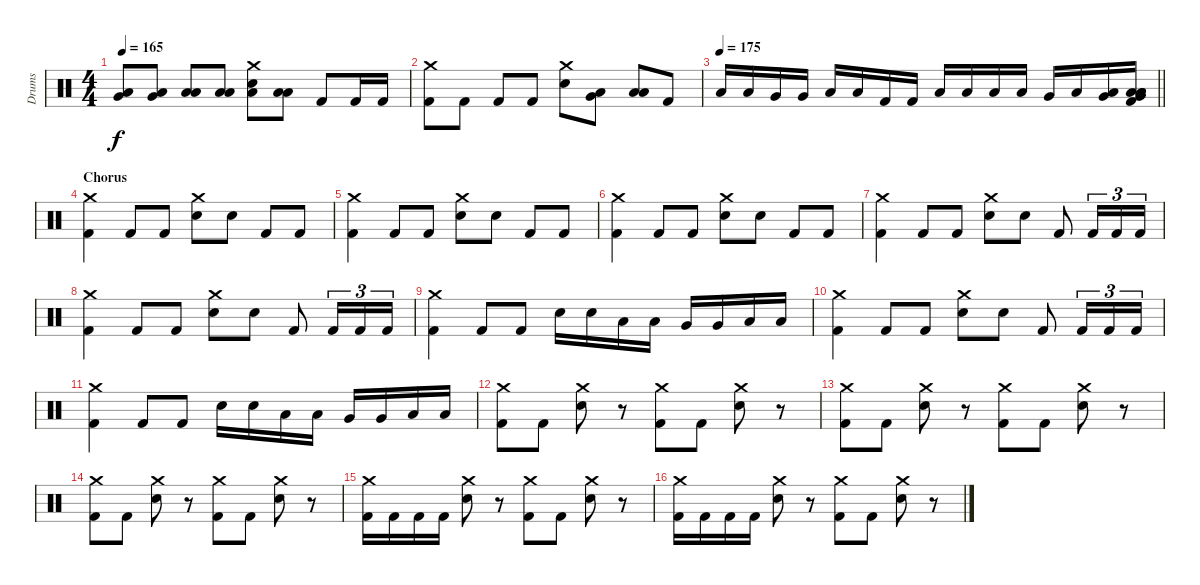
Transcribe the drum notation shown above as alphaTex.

\track ("Drums" "Drums") {instrument percussion}
\staff {score}
\articulation defaults
\ts (4 4)
\tempo 165
\clef neutral
\ks c
("Low Tom (hit)" "Very Low Tom (hit)").8{dy f} ("Low Tom (hit)" "Very Low Tom (hit)").8 ("Low Tom (hit)" "Low Floor Tom (hit)").8 ("Low Tom (hit)" "Low Floor Tom (hit)").8 ("Crash medium (hit)" "Electric Snare (hit)" "Low Tom (hit)").8 ("Low Tom (hit)" "Low Tom (hit)").8 "Kick (hit) 2".8 "Kick (hit) 2".16 "Kick (hit) 2".16 |
("Crash medium (hit)" "Kick (hit) 2").8 "Kick (hit) 2".8 "Kick (hit) 2".8 "Kick (hit) 2".8 ("Crash medium (hit)" "Electric Snare (hit)").8 ("Low Tom (hit)" "Very Low Tom (hit)").8 ("Low Tom (hit)" "Low Floor Tom (hit)").8 "Kick (hit) 2".8 |
\tempo 175
\barLineRight lightlight "Low Tom (hit)".16 "Low Tom (hit)".16 "Very Low Tom (hit)".16 "Very Low Tom (hit)".16 "Low Floor Tom (hit)".16 "Low Floor Tom (hit)".16 "Kick (hit) 2".16 "Kick (hit) 2".16 "Low Floor Tom (hit)".16 "Low Floor Tom (hit)".16 "Low Tom (hit)".16 "Low Tom (hit)".16 "Very Low Tom (hit)".16 "Low Floor Tom (hit)".16
("Very Low Tom (hit)" "Low Floor Tom (hit)").16 ("Low Floor Tom (hit)" "Low Floor Tom (hit)" "Very Low Tom (hit)" "Low Tom (hit)" "Kick (hit) 2").16 |
\section ("" "Chorus")
("Crash medium (hit)" "Kick (hit) 2").4 "Kick (hit) 2".8 "Kick (hit) 2".8 ("Crash medium (hit)" "Electric Snare (hit)").8 "Electric Snare (hit)".8 "Kick (hit) 2".8 "Kick (hit) 2".8 |
("Crash medium (hit)" "Kick (hit) 2").4 "Kick (hit) 2".8 "Kick (hit) 2".8 ("Crash medium (hit)" "Electric Snare (hit)").8 "Electric Snare (hit)".8 "Kick (hit) 2".8 "Kick (hit) 2".8 |
("Crash medium (hit)" "Kick (hit) 2").4 "Kick (hit) 2".8 "Kick (hit) 2".8 ("Crash medium (hit)" "Electric Snare (hit)").8 "Electric Snare (hit)".8 "Kick (hit) 2".8 "Kick (hit) 2".8 |
("Crash medium (hit)" "Kick (hit) 2").4 "Kick (hit) 2".8 "Kick (hit) 2".8 ("Crash medium (hit)" "Electric Snare (hit)").8 "Electric Snare (hit)".8 "Kick (hit) 2".8 "Kick (hit) 2".16{tu (3 2)} "Kick (hit) 2".16{tu (3 2)} "Kick (hit) 2".16{tu (3 2)} |
("Crash medium (hit)" "Kick (hit) 2").4 "Kick (hit) 2".8 "Kick (hit) 2".8 ("Crash medium (hit)" "Electric Snare (hit)").8 "Electric Snare (hit)".8 "Kick (hit) 2".8 "Kick (hit) 2".16{tu (3 2)} "Kick (hit) 2".16{tu (3 2)} "Kick (hit) 2".16{tu (3 2)} |
("Crash medium (hit)" "Kick (hit) 2").4 "Kick (hit) 2".8 "Kick (hit) 2".8 "Electric Snare (hit)".16 "Electric Snare (hit)".16 "Low Tom (hit)".16 "Low Tom (hit)".16 "Very Low Tom (hit)".16 "Very Low Tom (hit)".16 "Low Floor Tom (hit)".16 "Low Floor Tom (hit)".16 |
("Crash medium (hit)" "Kick (hit) 2").4 "Kick (hit) 2".8 "Kick (hit) 2".8 ("Crash medium (hit)" "Electric Snare (hit)").8 "Electric Snare (hit)".8 "Kick (hit) 2".8 "Kick (hit) 2".16{tu (3 2)} "Kick (hit) 2".16{tu (3 2)} "Kick (hit) 2".16{tu (3 2)} |
("Crash medium (hit)" "Kick (hit) 2").4 "Kick (hit) 2".8 "Kick (hit) 2".8 "Electric Snare (hit)".16 "Electric Snare (hit)".16 "Low Tom (hit)".16 "Low Tom (hit)".16 "Very Low Tom (hit)".16 "Very Low Tom (hit)".16 "Low Floor Tom (hit)".16 "Low Floor Tom (hit)".16 |
("Crash medium (hit)" "Kick (hit) 2").8 "Kick (hit) 2".8 ("Crash medium (hit)" "Electric Snare (hit)").8 r.8 ("Crash medium (hit)" "Kick (hit) 2").8 "Kick (hit) 2".8 ("Crash medium (hit)" "Electric Snare (hit)").8 r.8 |
("Crash medium (hit)" "Kick (hit) 2").8 "Kick (hit) 2".8 ("Crash medium (hit)" "Electric Snare (hit)").8 r.8 ("Crash medium (hit)" "Kick (hit) 2").8 "Kick (hit) 2".8 ("Crash medium (hit)" "Electric Snare (hit)").8 r.8 |
("Crash medium (hit)" "Kick (hit) 2").8 "Kick (hit) 2".8 ("Crash medium (hit)" "Electric Snare (hit)").8 r.8 ("Crash medium (hit)" "Kick (hit) 2").8 "Kick (hit) 2".8 ("Crash medium (hit)" "Electric Snare (hit)").8 r.8 |
("Crash medium (hit)" "Kick (hit) 2").16 "Kick (hit) 2".16 "Kick (hit) 2".16 "Kick (hit) 2".16 ("Crash medium (hit)" "Electric Snare (hit)").8 r.8 ("Crash medium (hit)" "Kick (hit) 2").8 "Kick (hit) 2".8 ("Crash medium (hit)" "Electric Snare (hit)").8 r.8 |
("Crash medium (hit)" "Kick (hit) 2").16 "Kick (hit) 2".16 "Kick (hit) 2".16 "Kick (hit) 2".16 ("Crash medium (hit)" "Electric Snare (hit)").8 r.8 ("Crash medium (hit)" "Kick (hit) 2").8 "Kick (hit) 2".8 ("Crash medium (hit)" "Electric Snare (hit)").8 r.8
